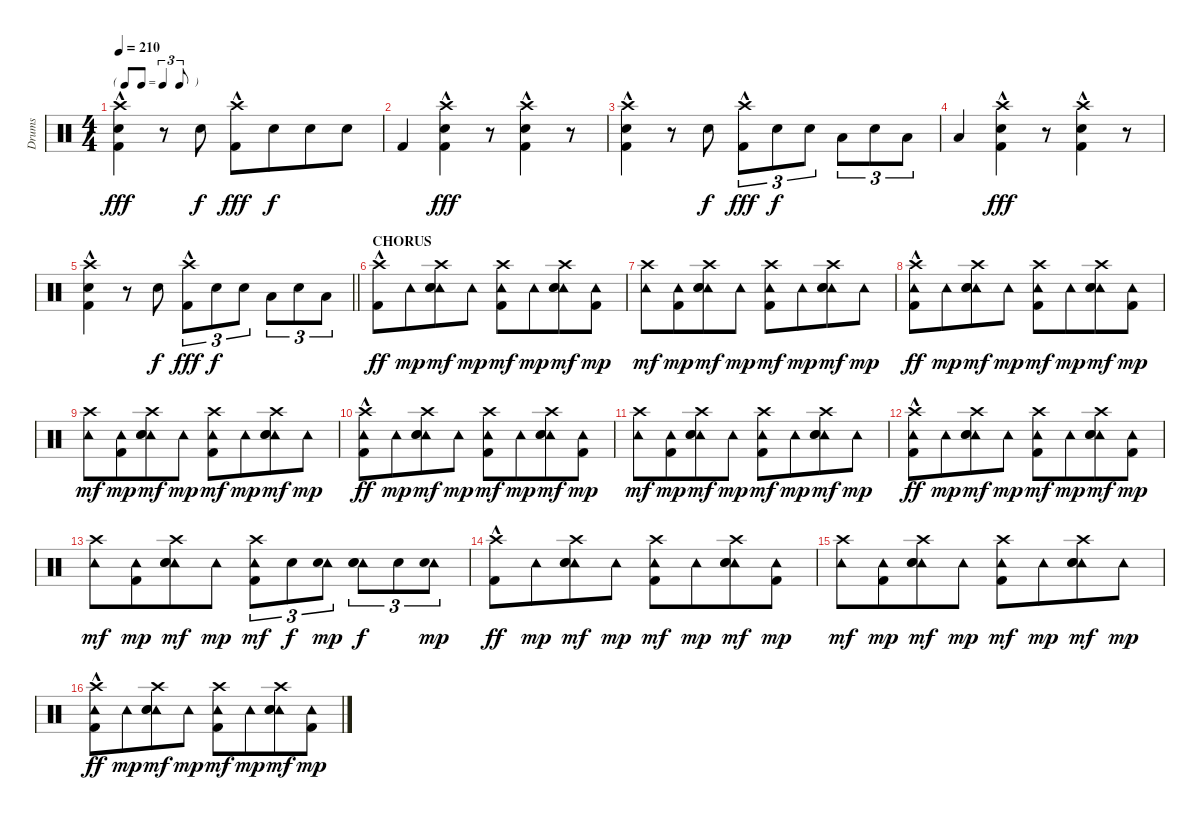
\track ("Drums" "Drums") {instrument percussion}
\staff {score}
\articulation defaults
\ts (4 4)
\tf triplet8th
\tempo 210
\clef neutral
\ks c
("Crash high (hit)"{hac} "Electric Snare (hit)" "Kick (hit) 2").4{dy fff} r.8 "Electric Snare (hit)".8{dy f} ("Crash high (hit)"{hac} "Kick (hit) 2").8{dy fff} "Electric Snare (hit)".8{dy f beam merge} "Electric Snare (hit)".8 "Electric Snare (hit)".8 |
"Kick (hit) 2".4 ("Crash high (hit)"{hac} "Electric Snare (hit)" "Kick (hit) 2").4{dy fff} r.8 ("Crash high (hit)"{hac} "Electric Snare (hit)" "Kick (hit) 2").4 r.8 |
("Crash high (hit)"{hac} "Electric Snare (hit)" "Kick (hit) 2").4 r.8 "Electric Snare (hit)".8{dy f} ("Crash high (hit)"{hac} "Kick (hit) 2").8{tu (3 2) dy fff} "Electric Snare (hit)".8{tu (3 2) dy f} "Electric Snare (hit)".8{tu (3 2)} "Low Tom (hit)".8{tu (3 2)} "Electric Snare (hit)".8{tu (3 2)} "Low Tom (hit)".8{tu (3 2)} |
"Low Floor Tom (hit)".4 ("Crash high (hit)"{hac} "Electric Snare (hit)" "Kick (hit) 2").4{dy fff} r.8 ("Crash high (hit)"{hac} "Electric Snare (hit)" "Kick (hit) 2").4 r.8 |
\barLineRight lightlight
("Crash high (hit)"{hac} "Electric Snare (hit)" "Kick (hit) 2").4 r.8 "Electric Snare (hit)".8{dy f} ("Crash high (hit)"{hac} "Kick (hit) 2").8{tu (3 2) dy fff} "Electric Snare (hit)".8{tu (3 2) dy f} "Electric Snare (hit)".8{tu (3 2)} "Low Tom (hit)".8{tu (3 2)} "Electric Snare (hit)".8{tu (3 2)} "Low Tom (hit)".8{tu (3 2)} |
\section ("" "CHORUS")
("Crash high (hit)"{hac} "Kick (hit) 2").8{dy ff} "Tambourine (hit)".8{dy mp beam merge} ("Tambourine (hit)" "Crash high (hit)" "Hand Clap (hit)" "Electric Snare (hit)").8{dy mf} "Tambourine (hit)".8{dy mp} ("Tambourine (hit)" "Crash high (hit)" "Kick (hit) 2").8{dy mf} "Tambourine (hit)".8{dy mp beam merge} ("Tambourine (hit)" "Crash high (hit)" "Hand Clap (hit)" "Electric Snare (hit)").8{dy mf} ("Tambourine (hit)" "Kick (hit) 2").8{dy mp} |
("Tambourine (hit)" "Crash high (hit)").8{dy mf} ("Tambourine (hit)" "Kick (hit) 2").8{dy mp beam merge} ("Tambourine (hit)" "Crash high (hit)" "Hand Clap (hit)" "Electric Snare (hit)").8{dy mf} "Tambourine (hit)".8{dy mp} ("Tambourine (hit)" "Crash high (hit)" "Kick (hit) 2").8{dy mf} "Tambourine (hit)".8{dy mp beam merge} ("Tambourine (hit)" "Crash high (hit)" "Hand Clap (hit)" "Electric Snare (hit)").8{dy mf} "Tambourine (hit)".8{dy mp} |
("Tambourine (hit)" "Crash high (hit)"{hac} "Kick (hit) 2").8{dy ff} "Tambourine (hit)".8{dy mp beam merge} ("Tambourine (hit)" "Crash high (hit)" "Hand Clap (hit)" "Electric Snare (hit)").8{dy mf} "Tambourine (hit)".8{dy mp} ("Tambourine (hit)" "Crash high (hit)" "Kick (hit) 2").8{dy mf} "Tambourine (hit)".8{dy mp beam merge} ("Tambourine (hit)" "Crash high (hit)" "Hand Clap (hit)" "Electric Snare (hit)").8{dy mf} ("Tambourine (hit)" "Kick (hit) 2").8{dy mp} |
("Tambourine (hit)" "Crash high (hit)").8{dy mf} ("Tambourine (hit)" "Kick (hit) 2").8{dy mp beam merge} ("Tambourine (hit)" "Crash high (hit)" "Hand Clap (hit)" "Electric Snare (hit)").8{dy mf} "Tambourine (hit)".8{dy mp} ("Tambourine (hit)" "Crash high (hit)" "Kick (hit) 2").8{dy mf} "Tambourine (hit)".8{dy mp beam merge} ("Tambourine (hit)" "Crash high (hit)" "Hand Clap (hit)" "Electric Snare (hit)").8{dy mf} "Tambourine (hit)".8{dy mp} |
("Tambourine (hit)" "Crash high (hit)"{hac} "Kick (hit) 2").8{dy ff} "Tambourine (hit)".8{dy mp beam merge} ("Tambourine (hit)" "Crash high (hit)" "Hand Clap (hit)" "Electric Snare (hit)").8{dy mf} "Tambourine (hit)".8{dy mp} ("Tambourine (hit)" "Crash high (hit)" "Kick (hit) 2").8{dy mf} "Tambourine (hit)".8{dy mp beam merge} ("Tambourine (hit)" "Crash high (hit)" "Hand Clap (hit)" "Electric Snare (hit)").8{dy mf} ("Tambourine (hit)" "Kick (hit) 2").8{dy mp} |
("Tambourine (hit)" "Crash high (hit)").8{dy mf} ("Tambourine (hit)" "Kick (hit) 2").8{dy mp beam merge} ("Tambourine (hit)" "Crash high (hit)" "Hand Clap (hit)" "Electric Snare (hit)").8{dy mf} "Tambourine (hit)".8{dy mp} ("Tambourine (hit)" "Crash high (hit)" "Kick (hit) 2").8{dy mf} "Tambourine (hit)".8{dy mp beam merge} ("Tambourine (hit)" "Crash high (hit)" "Hand Clap (hit)" "Electric Snare (hit)").8{dy mf} "Tambourine (hit)".8{dy mp} |
("Tambourine (hit)" "Crash high (hit)"{hac} "Kick (hit) 2").8{dy ff} "Tambourine (hit)".8{dy mp beam merge} ("Tambourine (hit)" "Crash high (hit)" "Hand Clap (hit)" "Electric Snare (hit)").8{dy mf} "Tambourine (hit)".8{dy mp} ("Tambourine (hit)" "Crash high (hit)" "Kick (hit) 2").8{dy mf} "Tambourine (hit)".8{dy mp beam merge} ("Tambourine (hit)" "Crash high (hit)" "Hand Clap (hit)" "Electric Snare (hit)").8{dy mf} ("Tambourine (hit)" "Kick (hit) 2").8{dy mp} |
("Tambourine (hit)" "Crash high (hit)").8{dy mf} ("Tambourine (hit)" "Kick (hit) 2").8{dy mp beam merge} ("Tambourine (hit)" "Crash high (hit)" "Hand Clap (hit)" "Electric Snare (hit)").8{dy mf} "Tambourine (hit)".8{dy mp} ("Tambourine (hit)" "Crash high (hit)" "Kick (hit) 2").8{tu (3 2) dy mf} "Electric Snare (hit)".8{tu (3 2) dy f} ("Tambourine (hit)" "Electric Snare (hit)").8{tu (3 2) dy mp} ("Tambourine (hit)" "Hand Clap (hit)" "Electric Snare (hit)").8{tu (3 2) dy f} "Electric Snare (hit)".8{tu (3 2)} ("Tambourine (hit)" "Electric Snare (hit)").8{tu (3 2) dy mp} |
("Crash high (hit)"{hac} "Kick (hit) 2").8{dy ff} "Tambourine (hit)".8{dy mp beam merge} ("Tambourine (hit)" "Crash high (hit)" "Hand Clap (hit)" "Electric Snare (hit)").8{dy mf} "Tambourine (hit)".8{dy mp} ("Tambourine (hit)" "Crash high (hit)" "Kick (hit) 2").8{dy mf} "Tambourine (hit)".8{dy mp beam merge} ("Tambourine (hit)" "Crash high (hit)" "Hand Clap (hit)" "Electric Snare (hit)").8{dy mf} ("Tambourine (hit)" "Kick (hit) 2").8{dy mp} |
("Tambourine (hit)" "Crash high (hit)").8{dy mf} ("Tambourine (hit)" "Kick (hit) 2").8{dy mp beam merge} ("Tambourine (hit)" "Crash high (hit)" "Hand Clap (hit)" "Electric Snare (hit)").8{dy mf} "Tambourine (hit)".8{dy mp} ("Tambourine (hit)" "Crash high (hit)" "Kick (hit) 2").8{dy mf} "Tambourine (hit)".8{dy mp beam merge} ("Tambourine (hit)" "Crash high (hit)" "Hand Clap (hit)" "Electric Snare (hit)").8{dy mf} "Tambourine (hit)".8{dy mp} |
("Tambourine (hit)" "Crash high (hit)"{hac} "Kick (hit) 2").8{dy ff} "Tambourine (hit)".8{dy mp beam merge} ("Tambourine (hit)" "Crash high (hit)" "Hand Clap (hit)" "Electric Snare (hit)").8{dy mf} "Tambourine (hit)".8{dy mp} ("Tambourine (hit)" "Crash high (hit)" "Kick (hit) 2").8{dy mf} "Tambourine (hit)".8{dy mp beam merge} ("Tambourine (hit)" "Crash high (hit)" "Hand Clap (hit)" "Electric Snare (hit)").8{dy mf} ("Tambourine (hit)" "Kick (hit) 2").8{dy mp}
